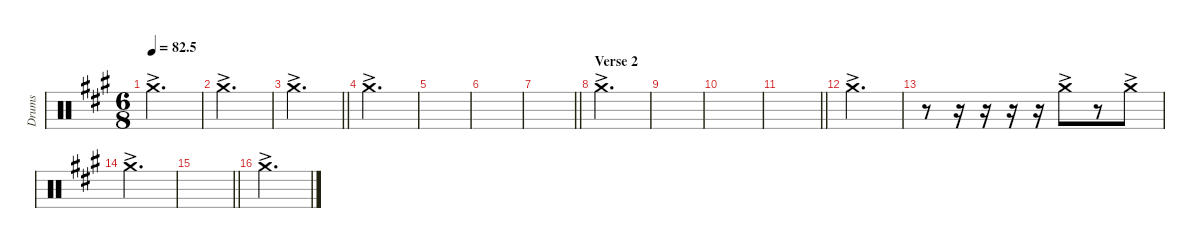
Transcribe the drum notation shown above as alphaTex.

\defaultSystemsLayout 4
\hideDynamics
\bracketExtendMode nobrackets
\otherSystemsTrackNameOrientation horizontal
\track ("Right crash" "Drums") {instrument percussion}
\staff {score}
\articulation defaults
\ts (6 8)
\tempo
82.5
\accidentals auto
\clef neutral
\ottava regular
\simile none
\scale
0.333333
\ks a "Crash medium (hit)"{ac acc forcenatural}.2{d dy f}
|
\scale
0.333333 "Crash medium (hit)"{ac acc forcenatural}.2{d} |
\scale
0.333333
\barLineRight lightlight "Crash medium (hit)"{ac acc forcenatural}.2{d}
|
\scale
0.333333 "Crash medium (hit)"{ac acc forcenatural}.2{d} |
\scale
0.333333 |
\scale
0.333333 |
\scale
0.333333
\barLineRight lightlight
|
\section ("" "Verse 2")
\scale
0.333333 "Crash medium (hit)"{ac acc forcenatural}.2{d} |
\scale
0.333333 |
\scale
0.333333 |
\scale
0.333333
\barLineRight lightlight
|
\scale
0.333333 "Crash medium (hit)"{ac acc forcenatural}.2{d} |
\scale
0.333333 r.8 r.16 r.16 r.16 r.16 "Crash medium (hit)"{ac acc forcenatural}.8 r.8 "Crash medium (hit)"{ac acc forcenatural}.8 |
\scale
0.333333 "Crash medium (hit)"{ac acc forcenatural}.2{d} |
\scale
0.333333
\barLineRight lightlight
|
\scale
0.333333 "Crash medium (hit)"{ac acc forcenatural}.2{d}
